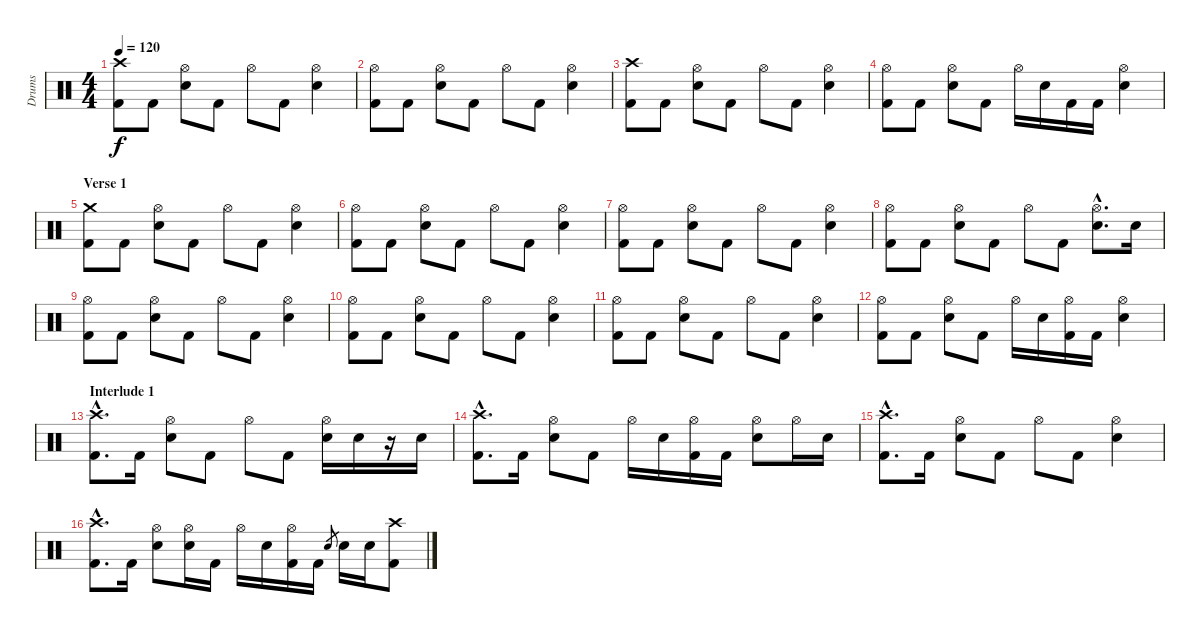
\track ("Drums" "Drums") {instrument percussion}
\staff {score}
\articulation defaults
\ts (4 4)
\tempo 120
\clef neutral
\ks c
("Crash high (hit)" "Kick (hit) 2").8{dy f} "Kick (hit) 2".8 ("Hi-Hat (open)" "Electric Snare (hit)").8 "Kick (hit) 2".8 "Hi-Hat (open)".8 "Kick (hit) 2".8 ("Hi-Hat (open)" "Electric Snare (hit)").4 |
("Hi-Hat (open)" "Kick (hit) 2").8 "Kick (hit) 2".8 ("Hi-Hat (open)" "Electric Snare (hit)").8 "Kick (hit) 2".8 "Hi-Hat (open)".8 "Kick (hit) 2".8 ("Hi-Hat (open)" "Electric Snare (hit)").4 |
("Crash high (hit)" "Kick (hit) 2").8 "Kick (hit) 2".8 ("Hi-Hat (open)" "Electric Snare (hit)").8 "Kick (hit) 2".8 "Hi-Hat (open)".8 "Kick (hit) 2".8 ("Hi-Hat (open)" "Electric Snare (hit)").4 |
("Hi-Hat (open)" "Kick (hit) 2").8 "Kick (hit) 2".8 ("Hi-Hat (open)" "Electric Snare (hit)").8 "Kick (hit) 2".8 "Hi-Hat (open)".16 "Electric Snare (hit)".16 "Kick (hit) 2".16 "Kick (hit) 2".16 ("Hi-Hat (open)" "Electric Snare (hit)").4 |
\section ("" "Verse 1")
("Crash medium (hit)" "Kick (hit) 2").8 "Kick (hit) 2".8 ("Hi-Hat (open)" "Electric Snare (hit)").8 "Kick (hit) 2".8 "Hi-Hat (open)".8 "Kick (hit) 2".8 ("Hi-Hat (open)" "Electric Snare (hit)").4 |
("Hi-Hat (open)" "Kick (hit) 2").8 "Kick (hit) 2".8 ("Hi-Hat (open)" "Electric Snare (hit)").8 "Kick (hit) 2".8 "Hi-Hat (open)".8 "Kick (hit) 2".8 ("Hi-Hat (open)" "Electric Snare (hit)").4 |
("Hi-Hat (open)" "Kick (hit) 2").8 "Kick (hit) 2".8 ("Hi-Hat (open)" "Electric Snare (hit)").8 "Kick (hit) 2".8 "Hi-Hat (open)".8 "Kick (hit) 2".8 ("Hi-Hat (open)" "Electric Snare (hit)").4 |
("Hi-Hat (open)" "Kick (hit) 2").8 "Kick (hit) 2".8 ("Hi-Hat (open)" "Electric Snare (hit)").8 "Kick (hit) 2".8 "Hi-Hat (open)".8 "Kick (hit) 2".8 ("Hi-Hat (open)"{hac} "Electric Snare (hit)"{hac}).8{d} "Electric Snare (hit)".16 |
("Hi-Hat (open)" "Kick (hit) 2").8 "Kick (hit) 2".8 ("Hi-Hat (open)" "Electric Snare (hit)").8 "Kick (hit) 2".8 "Hi-Hat (open)".8 "Kick (hit) 2".8 ("Hi-Hat (open)" "Electric Snare (hit)").4 |
("Hi-Hat (open)" "Kick (hit) 2").8 "Kick (hit) 2".8 ("Hi-Hat (open)" "Electric Snare (hit)").8 "Kick (hit) 2".8 "Hi-Hat (open)".8 "Kick (hit) 2".8 ("Hi-Hat (open)" "Electric Snare (hit)").4 |
("Hi-Hat (open)" "Kick (hit) 2").8 "Kick (hit) 2".8 ("Hi-Hat (open)" "Electric Snare (hit)").8 "Kick (hit) 2".8 "Hi-Hat (open)".8 "Kick (hit) 2".8 ("Hi-Hat (open)" "Electric Snare (hit)").4 |
("Hi-Hat (open)" "Kick (hit) 2").8 "Kick (hit) 2".8 ("Hi-Hat (open)" "Electric Snare (hit)").8 "Kick (hit) 2".8 "Hi-Hat (open)".16 "Electric Snare (hit)".16 ("Hi-Hat (open)" "Kick (hit) 2").16 "Kick (hit) 2".16 ("Hi-Hat (open)" "Electric Snare (hit)").4 |
\section ("" "Interlude 1")
("Crash high (hit)"{hac} "Kick (hit) 2"{hac}).8{d} "Kick (hit) 2".16 ("Hi-Hat (open)" "Electric Snare (hit)").8 "Kick (hit) 2".8 "Hi-Hat (open)".8 "Kick (hit) 2".8 ("Hi-Hat (open)" "Electric Snare (hit)").16 "Electric Snare (hit)".16 r.16 "Electric Snare (hit)".16 |
("Crash high (hit)"{hac} "Kick (hit) 2"{hac}).8{d} "Kick (hit) 2".16 ("Hi-Hat (open)" "Electric Snare (hit)").8 "Kick (hit) 2".8 "Hi-Hat (open)".16 "Electric Snare (hit)".16 ("Hi-Hat (open)" "Kick (hit) 2").16 "Kick (hit) 2".16 ("Hi-Hat (open)" "Electric Snare (hit)").8 "Hi-Hat (open)".16 "Electric Snare (hit)".16 |
("Crash high (hit)"{hac} "Kick (hit) 2"{hac}).8{d} "Kick (hit) 2".16 ("Hi-Hat (open)" "Electric Snare (hit)").8 "Kick (hit) 2".8 "Hi-Hat (open)".8 "Kick (hit) 2".8 ("Hi-Hat (open)" "Electric Snare (hit)").4 |
("Crash high (hit)"{hac} "Kick (hit) 2"{hac}).8{d} "Kick (hit) 2".16 ("Hi-Hat (open)" "Electric Snare (hit)").8 ("Hi-Hat (open)" "Electric Snare (hit)").16 "Kick (hit) 2".16 "Hi-Hat (open)".16 "Electric Snare (hit)".16 ("Hi-Hat (open)" "Kick (hit) 2").16 "Kick (hit) 2".16 "Electric Snare (hit)".8{gr} "Electric Snare (hit)".16 "Electric Snare (hit)".16 ("Crash high (hit)" "Kick (hit) 2").8
